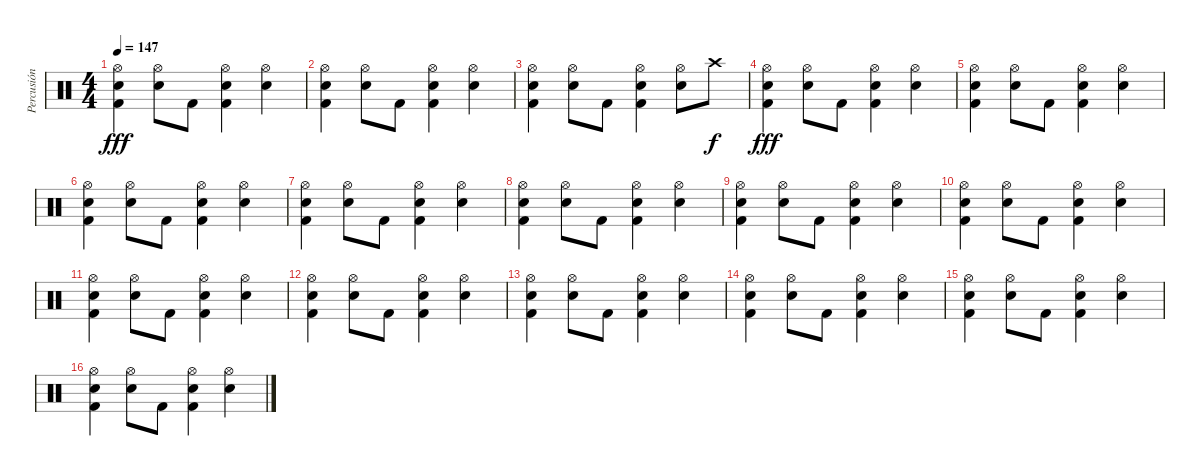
\track ("Percusión" "Percusión") {instrument percussion}
\staff {score}
\articulation defaults
\ts (4 4)
\tempo 147
\clef neutral
\ks c
("Hi-Hat (open)" "Electric Snare (hit)" "Kick (hit) 2").4{dy fff} ("Hi-Hat (open)" "Electric Snare (hit)").8 "Kick (hit) 2".8 ("Hi-Hat (open)" "Electric Snare (hit)" "Kick (hit) 2").4 ("Hi-Hat (open)" "Electric Snare (hit)").4 |
("Hi-Hat (open)" "Electric Snare (hit)" "Kick (hit) 2").4 ("Hi-Hat (open)" "Electric Snare (hit)").8 "Kick (hit) 2".8 ("Hi-Hat (open)" "Electric Snare (hit)" "Kick (hit) 2").4 ("Hi-Hat (open)" "Electric Snare (hit)").4 |
("Hi-Hat (open)" "Electric Snare (hit)" "Kick (hit) 2").4 ("Hi-Hat (open)" "Electric Snare (hit)").8 "Kick (hit) 2".8 ("Hi-Hat (open)" "Electric Snare (hit)" "Kick (hit) 2").4 ("Hi-Hat (open)" "Electric Snare (hit)").8 "Crash high (hit)".8{dy f} |
("Hi-Hat (open)" "Electric Snare (hit)" "Kick (hit) 2").4{dy fff} ("Hi-Hat (open)" "Electric Snare (hit)").8 "Kick (hit) 2".8 ("Hi-Hat (open)" "Electric Snare (hit)" "Kick (hit) 2").4 ("Hi-Hat (open)" "Electric Snare (hit)").4 |
("Hi-Hat (open)" "Electric Snare (hit)" "Kick (hit) 2").4 ("Hi-Hat (open)" "Electric Snare (hit)").8 "Kick (hit) 2".8 ("Hi-Hat (open)" "Electric Snare (hit)" "Kick (hit) 2").4 ("Hi-Hat (open)" "Electric Snare (hit)").4 |
("Hi-Hat (open)" "Electric Snare (hit)" "Kick (hit) 2").4 ("Hi-Hat (open)" "Electric Snare (hit)").8 "Kick (hit) 2".8 ("Hi-Hat (open)" "Electric Snare (hit)" "Kick (hit) 2").4 ("Hi-Hat (open)" "Electric Snare (hit)").4 |
("Hi-Hat (open)" "Electric Snare (hit)" "Kick (hit) 2").4 ("Hi-Hat (open)" "Electric Snare (hit)").8 "Kick (hit) 2".8 ("Hi-Hat (open)" "Electric Snare (hit)" "Kick (hit) 2").4 ("Hi-Hat (open)" "Electric Snare (hit)").4 |
("Hi-Hat (open)" "Electric Snare (hit)" "Kick (hit) 2").4 ("Hi-Hat (open)" "Electric Snare (hit)").8 "Kick (hit) 2".8 ("Hi-Hat (open)" "Electric Snare (hit)" "Kick (hit) 2").4 ("Hi-Hat (open)" "Electric Snare (hit)").4 |
("Hi-Hat (open)" "Electric Snare (hit)" "Kick (hit) 2").4 ("Hi-Hat (open)" "Electric Snare (hit)").8 "Kick (hit) 2".8 ("Hi-Hat (open)" "Electric Snare (hit)" "Kick (hit) 2").4 ("Hi-Hat (open)" "Electric Snare (hit)").4 |
("Hi-Hat (open)" "Electric Snare (hit)" "Kick (hit) 2").4 ("Hi-Hat (open)" "Electric Snare (hit)").8 "Kick (hit) 2".8 ("Hi-Hat (open)" "Electric Snare (hit)" "Kick (hit) 2").4 ("Hi-Hat (open)" "Electric Snare (hit)").4 |
("Hi-Hat (open)" "Electric Snare (hit)" "Kick (hit) 2").4 ("Hi-Hat (open)" "Electric Snare (hit)").8 "Kick (hit) 2".8 ("Hi-Hat (open)" "Electric Snare (hit)" "Kick (hit) 2").4 ("Hi-Hat (open)" "Electric Snare (hit)").4 |
("Hi-Hat (open)" "Electric Snare (hit)" "Kick (hit) 2").4 ("Hi-Hat (open)" "Electric Snare (hit)").8 "Kick (hit) 2".8 ("Hi-Hat (open)" "Electric Snare (hit)" "Kick (hit) 2").4 ("Hi-Hat (open)" "Electric Snare (hit)").4 |
("Hi-Hat (open)" "Electric Snare (hit)" "Kick (hit) 2").4 ("Hi-Hat (open)" "Electric Snare (hit)").8 "Kick (hit) 2".8 ("Hi-Hat (open)" "Electric Snare (hit)" "Kick (hit) 2").4 ("Hi-Hat (open)" "Electric Snare (hit)").4 |
("Hi-Hat (open)" "Electric Snare (hit)" "Kick (hit) 2").4 ("Hi-Hat (open)" "Electric Snare (hit)").8 "Kick (hit) 2".8 ("Hi-Hat (open)" "Electric Snare (hit)" "Kick (hit) 2").4 ("Hi-Hat (open)" "Electric Snare (hit)").4 |
("Hi-Hat (open)" "Electric Snare (hit)" "Kick (hit) 2").4 ("Hi-Hat (open)" "Electric Snare (hit)").8 "Kick (hit) 2".8 ("Hi-Hat (open)" "Electric Snare (hit)" "Kick (hit) 2").4 ("Hi-Hat (open)" "Electric Snare (hit)").4 |
("Hi-Hat (open)" "Electric Snare (hit)" "Kick (hit) 2").4 ("Hi-Hat (open)" "Electric Snare (hit)").8 "Kick (hit) 2".8 ("Hi-Hat (open)" "Electric Snare (hit)" "Kick (hit) 2").4 ("Hi-Hat (open)" "Electric Snare (hit)").4
